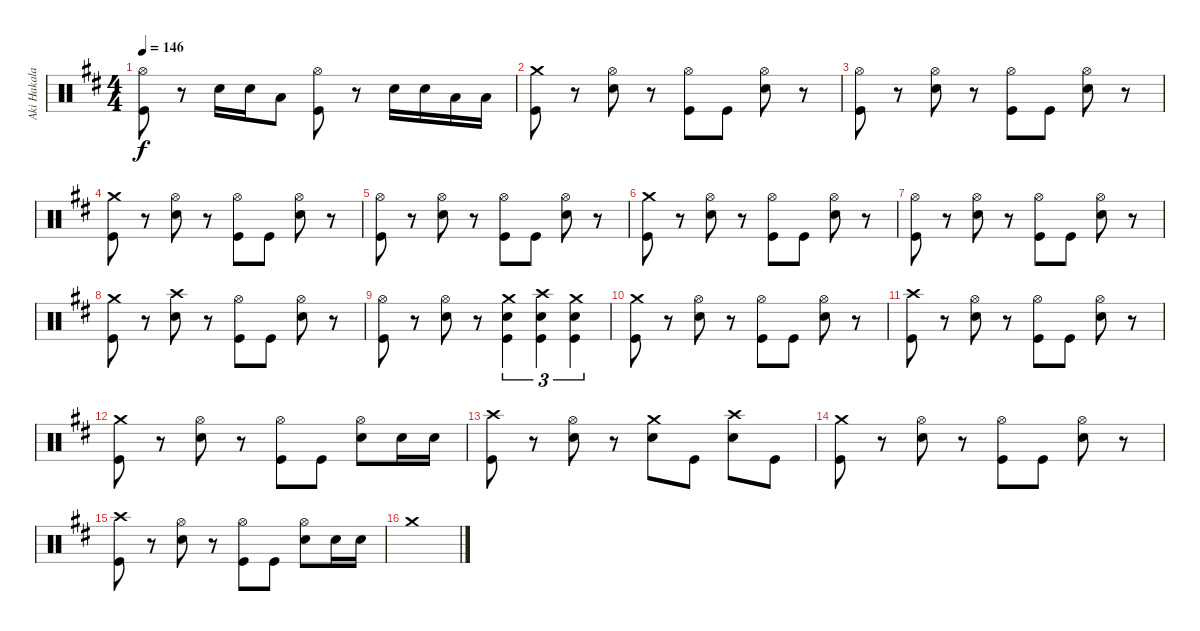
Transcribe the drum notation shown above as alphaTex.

\track ("Aki Hakala" "Aki Hakala") {instrument percussion}
\staff {score}
\articulation defaults
\ts (4 4)
\tempo 146
\clef neutral
\ks d
("Hi-Hat (open)" "Kick (hit)").8{dy f} r.8 "Electric Snare (hit)".16 "Electric Snare (hit)".16 "Low Tom (hit)".8 ("Hi-Hat (open)" "Kick (hit)").8 r.8 "Electric Snare (hit)".16 "Electric Snare (hit)".16 "Low Tom (hit)".16 "Low Tom (hit)".16 |
("Crash medium (hit)" "Kick (hit)").8 r.8 ("Hi-Hat (open)" "Electric Snare (hit)").8 r.8 ("Hi-Hat (open)" "Kick (hit)").8 "Kick (hit)".8 ("Hi-Hat (open)" "Electric Snare (hit)").8 r.8 |
("Hi-Hat (open)" "Kick (hit)").8 r.8 ("Hi-Hat (open)" "Electric Snare (hit)").8 r.8 ("Hi-Hat (open)" "Kick (hit)").8 "Kick (hit)".8 ("Hi-Hat (open)" "Electric Snare (hit)").8 r.8 |
("Crash medium (hit)" "Kick (hit)").8 r.8 ("Hi-Hat (open)" "Electric Snare (hit)").8 r.8 ("Hi-Hat (open)" "Kick (hit)").8 "Kick (hit)".8 ("Hi-Hat (open)" "Electric Snare (hit)").8 r.8 |
("Hi-Hat (open)" "Kick (hit)").8 r.8 ("Hi-Hat (open)" "Electric Snare (hit)").8 r.8 ("Hi-Hat (open)" "Kick (hit)").8 "Kick (hit)".8 ("Hi-Hat (open)" "Electric Snare (hit)").8 r.8 |
("Crash medium (hit)" "Kick (hit)").8 r.8 ("Hi-Hat (open)" "Electric Snare (hit)").8 r.8 ("Hi-Hat (open)" "Kick (hit)").8 "Kick (hit)".8 ("Hi-Hat (open)" "Electric Snare (hit)").8 r.8 |
("Hi-Hat (open)" "Kick (hit)").8 r.8 ("Hi-Hat (open)" "Electric Snare (hit)").8 r.8 ("Hi-Hat (open)" "Kick (hit)").8 "Kick (hit)".8 ("Hi-Hat (open)" "Electric Snare (hit)").8 r.8 |
("Crash medium (hit)" "Kick (hit)").8 r.8 ("Crash high (hit)" "Electric Snare (hit)").8 r.8 ("Hi-Hat (open)" "Kick (hit)").8 "Kick (hit)".8 ("Hi-Hat (open)" "Electric Snare (hit)").8 r.8 |
("Hi-Hat (open)" "Kick (hit)").8 r.8 ("Hi-Hat (open)" "Electric Snare (hit)").8 r.8 ("Crash medium (hit)" "Electric Snare (hit)" "Kick (hit)").4{tu (3 2)} ("Crash high (hit)" "Electric Snare (hit)" "Kick (hit)").4{tu (3 2)} ("Crash medium (hit)" "Electric Snare (hit)" "Kick (hit)").4{tu (3 2)} |
("Crash medium (hit)" "Kick (hit)").8 r.8 ("Hi-Hat (open)" "Electric Snare (hit)").8 r.8 ("Hi-Hat (open)" "Kick (hit)").8 "Kick (hit)".8 ("Hi-Hat (open)" "Electric Snare (hit)").8 r.8 |
("Crash high (hit)" "Kick (hit)").8 r.8 ("Hi-Hat (open)" "Electric Snare (hit)").8 r.8 ("Hi-Hat (open)" "Kick (hit)").8 "Kick (hit)".8 ("Hi-Hat (open)" "Electric Snare (hit)").8 r.8 |
("Crash medium (hit)" "Kick (hit)").8 r.8 ("Hi-Hat (open)" "Electric Snare (hit)").8 r.8 ("Hi-Hat (open)" "Kick (hit)").8 "Kick (hit)".8 ("Hi-Hat (open)" "Electric Snare (hit)").8 "Electric Snare (hit)".16 "Electric Snare (hit)".16 |
("Crash high (hit)" "Kick (hit)").8 r.8 ("Hi-Hat (open)" "Electric Snare (hit)").8 r.8 ("Crash medium (hit)" "Electric Snare (hit)").8 "Kick (hit)".8 ("Crash high (hit)" "Electric Snare (hit)").8 "Kick (hit)".8 |
("Crash medium (hit)" "Kick (hit)").8 r.8 ("Hi-Hat (open)" "Electric Snare (hit)").8 r.8 ("Hi-Hat (open)" "Kick (hit)").8 "Kick (hit)".8 ("Hi-Hat (open)" "Electric Snare (hit)").8 r.8 |
("Crash high (hit)" "Kick (hit)").8 r.8 ("Hi-Hat (open)" "Electric Snare (hit)").8 r.8 ("Hi-Hat (open)" "Kick (hit)").8 "Kick (hit)".8 ("Hi-Hat (open)" "Electric Snare (hit)").8 "Electric Snare (hit)".16 "Electric Snare (hit)".16 |
"Crash medium (hit)".1
